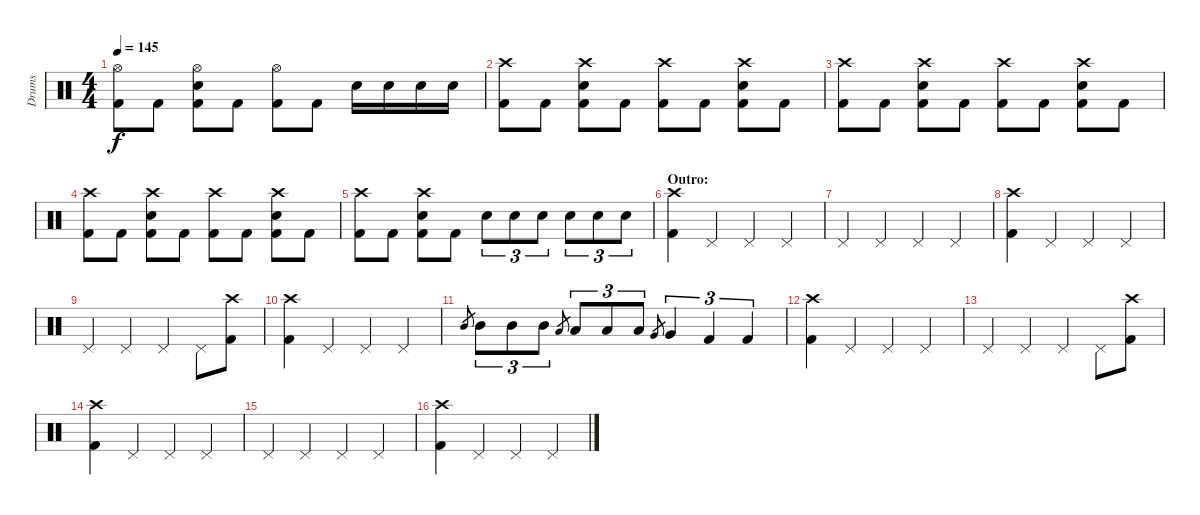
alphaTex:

\track ("Drums" "Drums") {instrument percussion}
\staff {score}
\articulation defaults
\ts (4 4)
\tempo 145
\clef neutral
\ks c
("Hi-Hat (open)" "Kick (hit) 2").8{dy f} "Kick (hit) 2".8 ("Hi-Hat (open)" "Electric Snare (hit)" "Kick (hit) 2").8 "Kick (hit) 2".8 ("Hi-Hat (open)" "Kick (hit) 2").8 "Kick (hit) 2".8 "Electric Snare (hit)".16 "Electric Snare (hit)".16 "Electric Snare (hit)".16 "Electric Snare (hit)".16 |
("Crash high (hit)" "Kick (hit) 2").8 "Kick (hit) 2".8 ("Crash high (hit)" "Electric Snare (hit)" "Kick (hit) 2").8 "Kick (hit) 2".8 ("Crash high (hit)" "Kick (hit) 2").8 "Kick (hit) 2".8 ("Crash high (hit)" "Electric Snare (hit)" "Kick (hit) 2").8 "Kick (hit) 2".8 |
("Crash high (hit)" "Kick (hit) 2").8 "Kick (hit) 2".8 ("Crash high (hit)" "Electric Snare (hit)" "Kick (hit) 2").8 "Kick (hit) 2".8 ("Crash high (hit)" "Kick (hit) 2").8 "Kick (hit) 2".8 ("Crash high (hit)" "Electric Snare (hit)" "Kick (hit) 2").8 "Kick (hit) 2".8 |
("Crash high (hit)" "Kick (hit) 2").8 "Kick (hit) 2".8 ("Crash high (hit)" "Electric Snare (hit)" "Kick (hit) 2").8 "Kick (hit) 2".8 ("Crash high (hit)" "Kick (hit) 2").8 "Kick (hit) 2".8 ("Crash high (hit)" "Electric Snare (hit)" "Kick (hit) 2").8 "Kick (hit) 2".8 |
("Crash high (hit)" "Kick (hit) 2").8 "Kick (hit) 2".8 ("Crash high (hit)" "Electric Snare (hit)" "Kick (hit) 2").8 "Kick (hit) 2".8 "Electric Snare (hit)".8{tu (3 2)} "Electric Snare (hit)".8{tu (3 2)} "Electric Snare (hit)".8{tu (3 2)} "Electric Snare (hit)".8{tu (3 2)} "Electric Snare (hit)".8{tu (3 2)} "Electric Snare (hit)".8{tu (3 2)} |
\section ("" "Outro:")
("Crash high (hit)" "Kick (hit) 2").4 "Pedal Hi-Hat (hit)".4 "Pedal Hi-Hat (hit)".4 "Pedal Hi-Hat (hit)".4 |
"Pedal Hi-Hat (hit)".4 "Pedal Hi-Hat (hit)".4 "Pedal Hi-Hat (hit)".4 "Pedal Hi-Hat (hit)".4 |
("Crash high (hit)" "Kick (hit) 2").4 "Pedal Hi-Hat (hit)".4 "Pedal Hi-Hat (hit)".4 "Pedal Hi-Hat (hit)".4 |
"Pedal Hi-Hat (hit)".4 "Pedal Hi-Hat (hit)".4 "Pedal Hi-Hat (hit)".4 "Pedal Hi-Hat (hit)".8 ("Crash high (hit)" "Kick (hit) 2").8 |
("Crash high (hit)" "Kick (hit) 2").4 "Pedal Hi-Hat (hit)".4 "Pedal Hi-Hat (hit)".4 "Pedal Hi-Hat (hit)".4 |
"Mid Tom (hit)".8{gr} "Mid Tom (hit)".8{tu (3 2)} "Mid Tom (hit)".8{tu (3 2)} "Mid Tom (hit)".8{tu (3 2)} "Low Tom (hit)".8{gr} "Low Tom (hit)".8{tu (3 2)} "Low Tom (hit)".8{tu (3 2)} "Low Tom (hit)".8{tu (3 2)} "Very Low Tom (hit)".8{gr} "Very Low Tom (hit)".4{tu (3 2)} "Kick (hit) 2".4{tu (3 2)} "Kick (hit) 2".4{tu (3 2)} |
("Crash high (hit)" "Kick (hit) 2").4{volume 8} "Pedal Hi-Hat (hit)".4 "Pedal Hi-Hat (hit)".4 "Pedal Hi-Hat (hit)".4 |
"Pedal Hi-Hat (hit)".4 "Pedal Hi-Hat (hit)".4 "Pedal Hi-Hat (hit)".4 "Pedal Hi-Hat (hit)".8 ("Crash high (hit)" "Kick (hit) 2").8 |
("Crash high (hit)" "Kick (hit) 2").4 "Pedal Hi-Hat (hit)".4 "Pedal Hi-Hat (hit)".4 "Pedal Hi-Hat (hit)".4 |
"Pedal Hi-Hat (hit)".4 "Pedal Hi-Hat (hit)".4 "Pedal Hi-Hat (hit)".4 "Pedal Hi-Hat (hit)".4 |
("Crash high (hit)" "Kick (hit) 2").4{volume 4} "Pedal Hi-Hat (hit)".4 "Pedal Hi-Hat (hit)".4 "Pedal Hi-Hat (hit)".4
